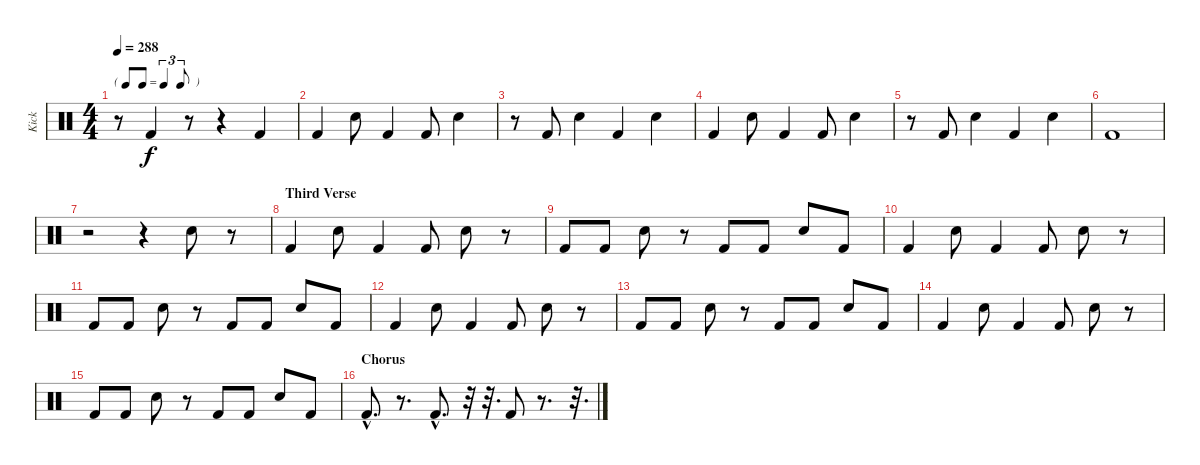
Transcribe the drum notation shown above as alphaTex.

\track ("Kick" "Kick") {instrument percussion}
\staff {score}
\articulation defaults
\ts (4 4)
\tf triplet8th
\tempo 288
\clef neutral
\ks c
r.8{dy f} "Kick (hit) 2".4 r.8 r.4 "Kick (hit) 2".4 |
"Kick (hit) 2".4 "Snare (hit) 2".8 "Kick (hit) 2".4 "Kick (hit) 2".8 "Snare (hit) 2".4 |
r.8 "Kick (hit) 2".8 "Snare (hit) 2".4 "Kick (hit) 2".4 "Snare (hit) 2".4 |
"Kick (hit) 2".4 "Snare (hit) 2".8 "Kick (hit) 2".4 "Kick (hit) 2".8 "Snare (hit) 2".4 |
r.8 "Kick (hit) 2".8 "Snare (hit) 2".4 "Kick (hit) 2".4 "Snare (hit) 2".4 |
"Kick (hit) 2".1 |
r.2 r.4 "Snare (hit) 2".8 r.8 |
\section ("" "Third Verse")
"Kick (hit) 2".4 "Snare (hit) 2".8 "Kick (hit) 2".4 "Kick (hit) 2".8 "Snare (hit) 2".8 r.8 |
"Kick (hit) 2".8 "Kick (hit) 2".8 "Snare (hit) 2".8 r.8 "Kick (hit) 2".8 "Kick (hit) 2".8 "Snare (hit) 2".8 "Kick (hit) 2".8 |
"Kick (hit) 2".4 "Snare (hit) 2".8 "Kick (hit) 2".4 "Kick (hit) 2".8 "Snare (hit) 2".8 r.8 |
"Kick (hit) 2".8 "Kick (hit) 2".8 "Snare (hit) 2".8 r.8 "Kick (hit) 2".8 "Kick (hit) 2".8 "Snare (hit) 2".8 "Kick (hit) 2".8 |
"Kick (hit) 2".4 "Snare (hit) 2".8 "Kick (hit) 2".4 "Kick (hit) 2".8 "Snare (hit) 2".8 r.8 |
"Kick (hit) 2".8 "Kick (hit) 2".8 "Snare (hit) 2".8 r.8 "Kick (hit) 2".8 "Kick (hit) 2".8 "Snare (hit) 2".8 "Kick (hit) 2".8 |
"Kick (hit) 2".4 "Snare (hit) 2".8 "Kick (hit) 2".4 "Kick (hit) 2".8 "Snare (hit) 2".8 r.8 |
"Kick (hit) 2".8 "Kick (hit) 2".8 "Snare (hit) 2".8 r.8 "Kick (hit) 2".8 "Kick (hit) 2".8 "Snare (hit) 2".8 "Kick (hit) 2".8 |
\section ("" "Chorus")
"Kick (hit) 2"{hac}.8{d} r.8{d} "Kick (hit) 2"{hac}.8{d} r.32 r.32{d} "Kick (hit) 2".8 r.8{d} r.32{d}
